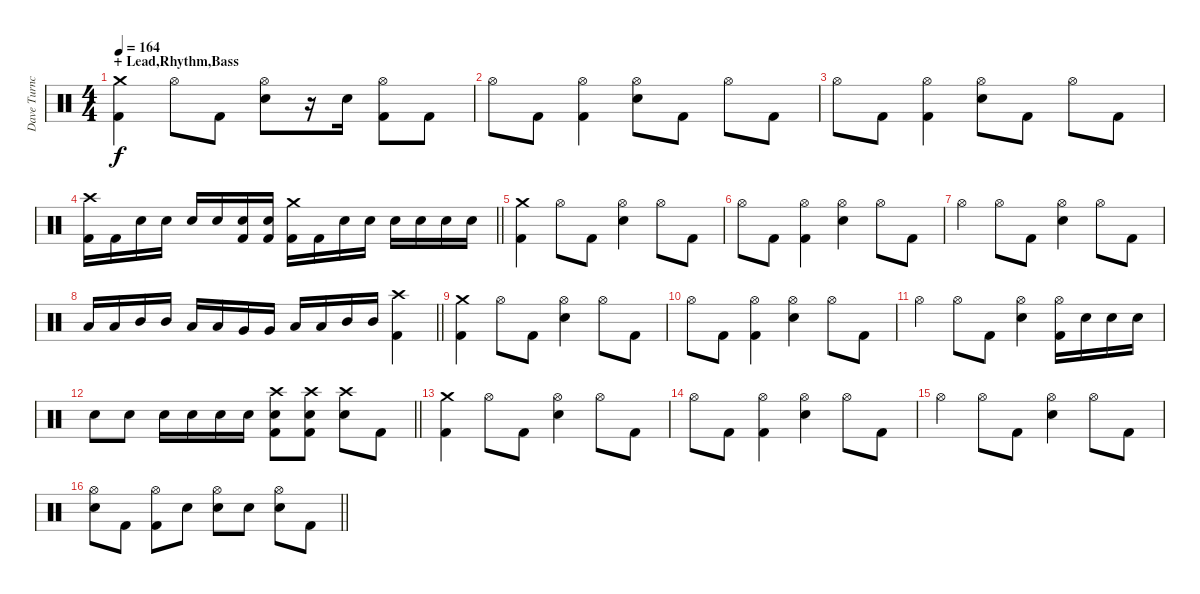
\track ("Dave Turncrantz" "Dave Turnc") {instrument percussion}
\staff {score}
\articulation defaults
\ts (4 4)
\section ("" "+ Lead,Rhythm,Bass")
\tempo 164
\clef neutral
\ks c
("Crash medium (hit)" "Kick (hit) 2").4{dy f} "Hi-Hat (open)".8 "Kick (hit) 2".8 ("Hi-Hat (open)" "Electric Snare (hit)").8 r.16 "Electric Snare (hit)".16 ("Hi-Hat (open)" "Kick (hit) 2").8 "Kick (hit) 2".8 |
"Hi-Hat (open)".8 "Kick (hit) 2".8 ("Hi-Hat (open)" "Kick (hit) 2").4 ("Hi-Hat (open)" "Electric Snare (hit)").8 "Kick (hit) 2".8 "Hi-Hat (open)".8 "Kick (hit) 2".8 |
"Hi-Hat (open)".8 "Kick (hit) 2".8 ("Hi-Hat (open)" "Kick (hit) 2").4 ("Hi-Hat (open)" "Electric Snare (hit)").8 "Kick (hit) 2".8 "Hi-Hat (open)".8 "Kick (hit) 2".8 |
\barLineRight lightlight
("Crash high (hit)" "Kick (hit) 2").16 "Kick (hit) 2".16 "Electric Snare (hit)".16 "Electric Snare (hit)".16 "Electric Snare (hit)".16 "Electric Snare (hit)".16 ("Electric Snare (hit)" "Kick (hit) 2").16 ("Electric Snare (hit)" "Kick (hit) 2").16 ("Crash medium (hit)" "Kick (hit) 2").16 "Kick (hit) 2".16 "Electric Snare (hit)".16 "Electric Snare (hit)".16 "Electric Snare (hit)".16 "Electric Snare (hit)".16 "Electric Snare (hit)".16 "Electric Snare (hit)".16 |
\section ("" "")
("Crash medium (hit)" "Kick (hit) 2").4 "Hi-Hat (open)".8 "Kick (hit) 2".8 ("Hi-Hat (open)" "Electric Snare (hit)").4 "Hi-Hat (open)".8 "Kick (hit) 2".8 |
"Hi-Hat (open)".8 "Kick (hit) 2".8 ("Hi-Hat (open)" "Kick (hit) 2").4 ("Hi-Hat (open)" "Electric Snare (hit)").4 "Hi-Hat (open)".8 "Kick (hit) 2".8 |
"Hi-Hat (open)".4 "Hi-Hat (open)".8 "Kick (hit) 2".8 ("Hi-Hat (open)" "Electric Snare (hit)").4 "Hi-Hat (open)".8 "Kick (hit) 2".8 |
\barLineRight lightlight "Low Tom (hit)".16 "Low Tom (hit)".16 "Mid Tom (hit)".16 "Mid Tom (hit)".16 "Low Tom (hit)".16 "Low Tom (hit)".16 "Very Low Tom (hit)".16 "Very Low Tom (hit)".16 "Low Tom (hit)".16 "Low Tom (hit)".16 "Mid Tom (hit)".16 "Mid Tom (hit)".16
("Crash high (hit)" "Kick (hit) 2").4 |
\section ("" "")
("Crash medium (hit)" "Kick (hit) 2").4 "Hi-Hat (open)".8 "Kick (hit) 2".8 ("Hi-Hat (open)" "Electric Snare (hit)").4 "Hi-Hat (open)".8 "Kick (hit) 2".8 |
"Hi-Hat (open)".8 "Kick (hit) 2".8 ("Hi-Hat (open)" "Kick (hit) 2").4 ("Hi-Hat (open)" "Electric Snare (hit)").4 "Hi-Hat (open)".8 "Kick (hit) 2".8 |
"Hi-Hat (open)".4 "Hi-Hat (open)".8 "Kick (hit) 2".8 ("Hi-Hat (open)" "Electric Snare (hit)").4 ("Hi-Hat (open)" "Kick (hit) 2").16 "Electric Snare (hit)".16 "Electric Snare (hit)".16 "Electric Snare (hit)".16 |
\barLineRight lightlight "Electric Snare (hit)".8 "Electric Snare (hit)".8 "Electric Snare (hit)".16 "Electric Snare (hit)".16 "Electric Snare (hit)".16 "Electric Snare (hit)".16
("Crash high (hit)" "Electric Snare (hit)" "Kick (hit) 2").8 ("Crash high (hit)" "Electric Snare (hit)" "Kick (hit) 2").8 ("Crash high (hit)" "Electric Snare (hit)").8 "Kick (hit) 2".8 |
\section ("" "")
("Crash medium (hit)" "Kick (hit) 2").4 "Hi-Hat (open)".8 "Kick (hit) 2".8 ("Hi-Hat (open)" "Electric Snare (hit)").4 "Hi-Hat (open)".8 "Kick (hit) 2".8 |
"Hi-Hat (open)".8 "Kick (hit) 2".8 ("Hi-Hat (open)" "Kick (hit) 2").4 ("Hi-Hat (open)" "Electric Snare (hit)").4 "Hi-Hat (open)".8 "Kick (hit) 2".8 |
"Hi-Hat (open)".4 "Hi-Hat (open)".8 "Kick (hit) 2".8 ("Hi-Hat (open)" "Electric Snare (hit)").4 "Hi-Hat (open)".8 "Kick (hit) 2".8 |
\barLineRight lightlight
("Hi-Hat (open)" "Electric Snare (hit)").8 "Kick (hit) 2".8 ("Hi-Hat (open)" "Kick (hit) 2").8 "Electric Snare (hit)".8 ("Hi-Hat (open)" "Electric Snare (hit)").8 "Electric Snare (hit)".8 ("Hi-Hat (open)" "Electric Snare (hit)").8 "Kick (hit) 2".8
